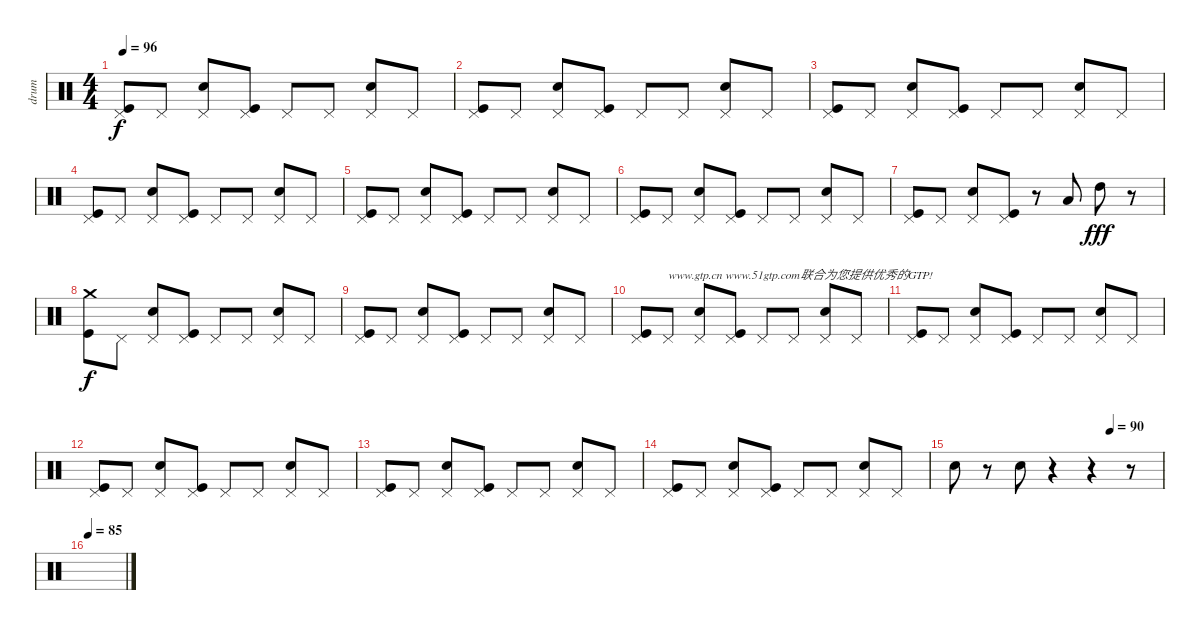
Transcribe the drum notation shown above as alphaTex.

\track ("drum" "drum") {instrument percussion}
\staff {score}
\articulation defaults
\ts (4 4)
\tempo 96
\clef neutral
\ks c
("Pedal Hi-Hat (hit)" "Kick (hit)").8{dy f} "Pedal Hi-Hat (hit)".8 ("Pedal Hi-Hat (hit)" "Electric Snare (hit)").8 ("Pedal Hi-Hat (hit)" "Kick (hit)").8 "Pedal Hi-Hat (hit)".8 "Pedal Hi-Hat (hit)".8 ("Pedal Hi-Hat (hit)" "Electric Snare (hit)").8 "Pedal Hi-Hat (hit)".8 |
("Pedal Hi-Hat (hit)" "Kick (hit)").8 "Pedal Hi-Hat (hit)".8 ("Pedal Hi-Hat (hit)" "Electric Snare (hit)").8 ("Pedal Hi-Hat (hit)" "Kick (hit)").8 "Pedal Hi-Hat (hit)".8 "Pedal Hi-Hat (hit)".8 ("Pedal Hi-Hat (hit)" "Electric Snare (hit)").8 "Pedal Hi-Hat (hit)".8 |
("Pedal Hi-Hat (hit)" "Kick (hit)").8 "Pedal Hi-Hat (hit)".8 ("Pedal Hi-Hat (hit)" "Electric Snare (hit)").8 ("Pedal Hi-Hat (hit)" "Kick (hit)").8 "Pedal Hi-Hat (hit)".8 "Pedal Hi-Hat (hit)".8 ("Pedal Hi-Hat (hit)" "Electric Snare (hit)").8 "Pedal Hi-Hat (hit)".8 |
("Pedal Hi-Hat (hit)" "Kick (hit)").8 "Pedal Hi-Hat (hit)".8 ("Pedal Hi-Hat (hit)" "Electric Snare (hit)").8 ("Pedal Hi-Hat (hit)" "Kick (hit)").8 "Pedal Hi-Hat (hit)".8 "Pedal Hi-Hat (hit)".8 ("Pedal Hi-Hat (hit)" "Electric Snare (hit)").8 "Pedal Hi-Hat (hit)".8 |
("Pedal Hi-Hat (hit)" "Kick (hit)").8 "Pedal Hi-Hat (hit)".8 ("Pedal Hi-Hat (hit)" "Electric Snare (hit)").8 ("Pedal Hi-Hat (hit)" "Kick (hit)").8 "Pedal Hi-Hat (hit)".8 "Pedal Hi-Hat (hit)".8 ("Pedal Hi-Hat (hit)" "Electric Snare (hit)").8 "Pedal Hi-Hat (hit)".8 |
("Pedal Hi-Hat (hit)" "Kick (hit)").8 "Pedal Hi-Hat (hit)".8 ("Pedal Hi-Hat (hit)" "Electric Snare (hit)").8 ("Pedal Hi-Hat (hit)" "Kick (hit)").8 "Pedal Hi-Hat (hit)".8 "Pedal Hi-Hat (hit)".8 ("Pedal Hi-Hat (hit)" "Electric Snare (hit)").8 "Pedal Hi-Hat (hit)".8 |
("Pedal Hi-Hat (hit)" "Kick (hit)").8 "Pedal Hi-Hat (hit)".8 ("Pedal Hi-Hat (hit)" "Electric Snare (hit)").8 ("Pedal Hi-Hat (hit)" "Kick (hit)").8 r.8 "Low Tom (hit)".8 "High Tom (hit)".8{dy fff} r.8 |
("Crash medium (hit)" "Kick (hit)").8{dy f} "Pedal Hi-Hat (hit)".8 ("Pedal Hi-Hat (hit)" "Electric Snare (hit)").8 ("Pedal Hi-Hat (hit)" "Kick (hit)").8 "Pedal Hi-Hat (hit)".8 "Pedal Hi-Hat (hit)".8 ("Pedal Hi-Hat (hit)" "Electric Snare (hit)").8 "Pedal Hi-Hat (hit)".8 |
("Pedal Hi-Hat (hit)" "Kick (hit)").8 "Pedal Hi-Hat (hit)".8 ("Pedal Hi-Hat (hit)" "Electric Snare (hit)").8 ("Pedal Hi-Hat (hit)" "Kick (hit)").8 "Pedal Hi-Hat (hit)".8 "Pedal Hi-Hat (hit)".8 ("Pedal Hi-Hat (hit)" "Electric Snare (hit)").8 "Pedal Hi-Hat (hit)".8 |
("Pedal Hi-Hat (hit)" "Kick (hit)").8 "Pedal Hi-Hat (hit)".8{txt "www.gtp.cn www.51gtp.com联合为您提供优秀的GTP!"} ("Pedal Hi-Hat (hit)" "Electric Snare (hit)").8 ("Pedal Hi-Hat (hit)" "Kick (hit)").8 "Pedal Hi-Hat (hit)".8 "Pedal Hi-Hat (hit)".8 ("Pedal Hi-Hat (hit)" "Electric Snare (hit)").8 "Pedal Hi-Hat (hit)".8 |
("Pedal Hi-Hat (hit)" "Kick (hit)").8 "Pedal Hi-Hat (hit)".8 ("Pedal Hi-Hat (hit)" "Electric Snare (hit)").8 ("Pedal Hi-Hat (hit)" "Kick (hit)").8 "Pedal Hi-Hat (hit)".8 "Pedal Hi-Hat (hit)".8 ("Pedal Hi-Hat (hit)" "Electric Snare (hit)").8 "Pedal Hi-Hat (hit)".8 |
("Pedal Hi-Hat (hit)" "Kick (hit)").8 "Pedal Hi-Hat (hit)".8 ("Pedal Hi-Hat (hit)" "Electric Snare (hit)").8 ("Pedal Hi-Hat (hit)" "Kick (hit)").8 "Pedal Hi-Hat (hit)".8 "Pedal Hi-Hat (hit)".8 ("Pedal Hi-Hat (hit)" "Electric Snare (hit)").8 "Pedal Hi-Hat (hit)".8 |
("Pedal Hi-Hat (hit)" "Kick (hit)").8 "Pedal Hi-Hat (hit)".8 ("Pedal Hi-Hat (hit)" "Electric Snare (hit)").8 ("Pedal Hi-Hat (hit)" "Kick (hit)").8 "Pedal Hi-Hat (hit)".8 "Pedal Hi-Hat (hit)".8 ("Pedal Hi-Hat (hit)" "Electric Snare (hit)").8 "Pedal Hi-Hat (hit)".8 |
("Pedal Hi-Hat (hit)" "Kick (hit)").8 "Pedal Hi-Hat (hit)".8 ("Pedal Hi-Hat (hit)" "Electric Snare (hit)").8 ("Pedal Hi-Hat (hit)" "Kick (hit)").8 "Pedal Hi-Hat (hit)".8 "Pedal Hi-Hat (hit)".8 ("Pedal Hi-Hat (hit)" "Electric Snare (hit)").8 "Pedal Hi-Hat (hit)".8 |
\tempo (90 0.75)
"Electric Snare (hit)".8 r.8 "Electric Snare (hit)".8 r.4 r.4 r.8 |
\tempo 85
